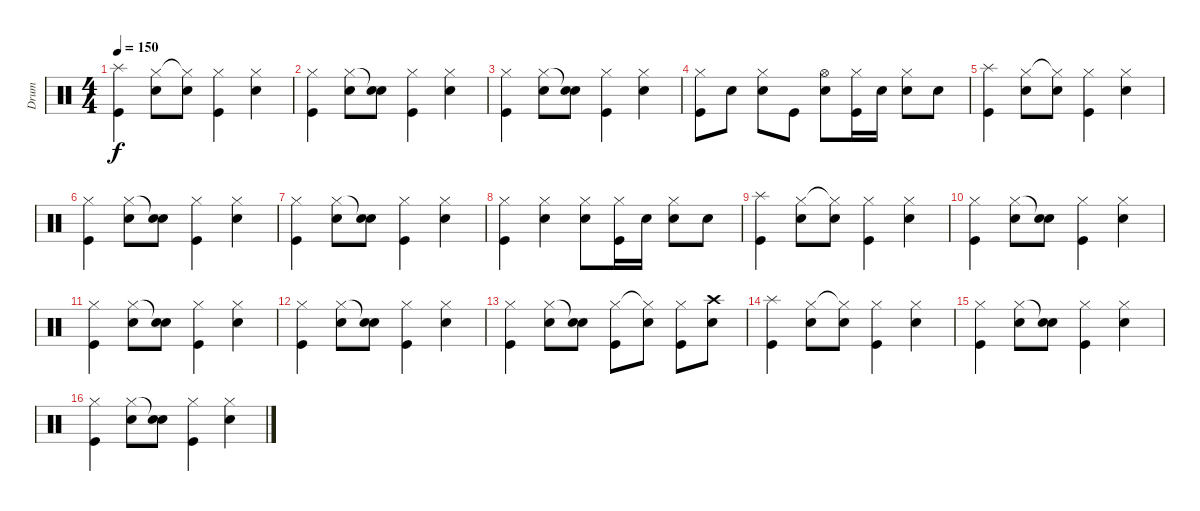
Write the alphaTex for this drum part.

\track ("Drum" "Drum") {instrument percussion}
\staff {score}
\articulation defaults
\ts (4 4)
\tempo 150
\clef neutral
\ks c
("Splash (hit)" "Kick (hit)").4{dy f} ("Hi-Hat (closed)" "Snare (hit) 2").8 ("Hi-Hat (closed)"{t} "Snare (hit) 2").8 ("Hi-Hat (closed)" "Kick (hit)").4 ("Hi-Hat (closed)" "Snare (hit) 2").4 |
("Hi-Hat (closed)" "Kick (hit)").4 ("Hi-Hat (closed)" "Snare (hit) 2").8 ("Snare (hit)"{t} "Snare (hit) 2").8 ("Hi-Hat (closed)" "Kick (hit)").4 ("Hi-Hat (closed)" "Snare (hit) 2").4 |
("Hi-Hat (closed)" "Kick (hit)").4 ("Hi-Hat (closed)" "Snare (hit) 2").8 ("Snare (hit)"{t} "Snare (hit) 2").8 ("Hi-Hat (closed)" "Kick (hit)").4 ("Hi-Hat (closed)" "Snare (hit) 2").4 |
("Hi-Hat (closed)" "Kick (hit)").8 "Snare (hit) 2".8 ("Hi-Hat (closed)" "Snare (hit) 2").8 "Kick (hit)".8 ("Hi-Hat (open)" "Snare (hit) 2").8 ("Hi-Hat (closed)" "Kick (hit)").16 "Snare (hit) 2".16 ("Hi-Hat (closed)" "Snare (hit) 2").8 "Snare (hit) 2".8 |
("Splash (hit)" "Kick (hit)").4 ("Hi-Hat (closed)" "Snare (hit) 2").8 ("Hi-Hat (closed)"{t} "Snare (hit) 2").8 ("Hi-Hat (closed)" "Kick (hit)").4 ("Hi-Hat (closed)" "Snare (hit) 2").4 |
("Hi-Hat (closed)" "Kick (hit)").4 ("Hi-Hat (closed)" "Snare (hit) 2").8 ("Snare (hit)"{t} "Snare (hit) 2").8 ("Hi-Hat (closed)" "Kick (hit)").4 ("Hi-Hat (closed)" "Snare (hit) 2").4 |
("Hi-Hat (closed)" "Kick (hit)").4 ("Hi-Hat (closed)" "Snare (hit) 2").8 ("Snare (hit)"{t} "Snare (hit) 2").8 ("Hi-Hat (closed)" "Kick (hit)").4 ("Hi-Hat (closed)" "Snare (hit) 2").4 |
("Hi-Hat (closed)" "Kick (hit)").4 ("Hi-Hat (closed)" "Snare (hit) 2").4 ("Hi-Hat (closed)" "Snare (hit) 2").8 ("Hi-Hat (closed)" "Kick (hit)").16 "Snare (hit) 2".16 ("Hi-Hat (closed)" "Snare (hit) 2").8 "Snare (hit) 2".8 |
("Splash (hit)" "Kick (hit)").4 ("Hi-Hat (closed)" "Snare (hit) 2").8 ("Hi-Hat (closed)"{t} "Snare (hit) 2").8 ("Hi-Hat (closed)" "Kick (hit)").4 ("Hi-Hat (closed)" "Snare (hit) 2").4 |
("Hi-Hat (closed)" "Kick (hit)").4 ("Hi-Hat (closed)" "Snare (hit) 2").8 ("Snare (hit)"{t} "Snare (hit) 2").8 ("Hi-Hat (closed)" "Kick (hit)").4 ("Hi-Hat (closed)" "Snare (hit) 2").4 |
("Hi-Hat (closed)" "Kick (hit)").4 ("Hi-Hat (closed)" "Snare (hit) 2").8 ("Snare (hit)"{t} "Snare (hit) 2").8 ("Hi-Hat (closed)" "Kick (hit)").4 ("Hi-Hat (closed)" "Snare (hit) 2").4 |
("Hi-Hat (closed)" "Kick (hit)").4 ("Hi-Hat (closed)" "Snare (hit) 2").8 ("Snare (hit)"{t} "Snare (hit) 2").8 ("Hi-Hat (closed)" "Kick (hit)").4 ("Hi-Hat (closed)" "Snare (hit) 2").4 |
("Hi-Hat (closed)" "Kick (hit)").4 ("Hi-Hat (closed)" "Snare (hit) 2").8 ("Snare (hit)"{t} "Snare (hit) 2").8 ("Hi-Hat (closed)" "Kick (hit)").8 ("Hi-Hat (closed)"{t} "Snare (hit) 2").8 ("Hi-Hat (closed)" "Kick (hit)").8 ("Crash high (hit)" "Snare (hit) 2").8 |
("Splash (hit)" "Kick (hit)").4 ("Hi-Hat (closed)" "Snare (hit) 2").8 ("Hi-Hat (closed)"{t} "Snare (hit) 2").8 ("Hi-Hat (closed)" "Kick (hit)").4 ("Hi-Hat (closed)" "Snare (hit) 2").4 |
("Hi-Hat (closed)" "Kick (hit)").4 ("Hi-Hat (closed)" "Snare (hit) 2").8 ("Snare (hit)"{t} "Snare (hit) 2").8 ("Hi-Hat (closed)" "Kick (hit)").4 ("Hi-Hat (closed)" "Snare (hit) 2").4 |
("Hi-Hat (closed)" "Kick (hit)").4 ("Hi-Hat (closed)" "Snare (hit) 2").8 ("Snare (hit)"{t} "Snare (hit) 2").8 ("Hi-Hat (closed)" "Kick (hit)").4 ("Hi-Hat (closed)" "Snare (hit) 2").4
